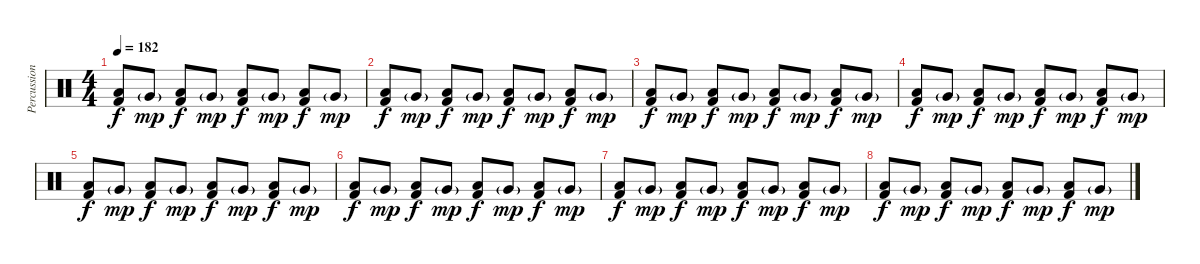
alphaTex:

\track ("Percussion" "Percussion") {instrument percussion}
\staff {score}
\articulation defaults
\ts (4 4)
\tempo 182
\clef neutral
\ks c
("Low Floor Tom (hit)" "Kick (hit) 2").8{dy f} "Very Low Tom (hit)"{g}.8{dy mp} ("Low Floor Tom (hit)" "Kick (hit) 2").8{dy f} "Very Low Tom (hit)"{g}.8{dy mp} ("Low Floor Tom (hit)" "Kick (hit) 2").8{dy f} "Very Low Tom (hit)"{g}.8{dy mp} ("Low Floor Tom (hit)" "Kick (hit) 2").8{dy f} "Very Low Tom (hit)"{g}.8{dy mp} |
("Low Floor Tom (hit)" "Kick (hit) 2").8{dy f} "Very Low Tom (hit)"{g}.8{dy mp} ("Low Floor Tom (hit)" "Kick (hit) 2").8{dy f} "Very Low Tom (hit)"{g}.8{dy mp} ("Low Floor Tom (hit)" "Kick (hit) 2").8{dy f} "Very Low Tom (hit)"{g}.8{dy mp} ("Low Floor Tom (hit)" "Kick (hit) 2").8{dy f} "Very Low Tom (hit)"{g}.8{dy mp} |
("Low Floor Tom (hit)" "Kick (hit) 2").8{dy f} "Very Low Tom (hit)"{g}.8{dy mp} ("Low Floor Tom (hit)" "Kick (hit) 2").8{dy f} "Very Low Tom (hit)"{g}.8{dy mp} ("Low Floor Tom (hit)" "Kick (hit) 2").8{dy f} "Very Low Tom (hit)"{g}.8{dy mp} ("Low Floor Tom (hit)" "Kick (hit) 2").8{dy f} "Very Low Tom (hit)"{g}.8{dy mp} |
("Low Floor Tom (hit)" "Kick (hit) 2").8{dy f} "Very Low Tom (hit)"{g}.8{dy mp} ("Low Floor Tom (hit)" "Kick (hit) 2").8{dy f} "Very Low Tom (hit)"{g}.8{dy mp} ("Low Floor Tom (hit)" "Kick (hit) 2").8{dy f} "Very Low Tom (hit)"{g}.8{dy mp} ("Low Floor Tom (hit)" "Kick (hit) 2").8{dy f} "Very Low Tom (hit)"{g}.8{dy mp} |
("Low Floor Tom (hit)" "Kick (hit) 2").8{dy f} "Very Low Tom (hit)"{g}.8{dy mp} ("Low Floor Tom (hit)" "Kick (hit) 2").8{dy f} "Very Low Tom (hit)"{g}.8{dy mp} ("Low Floor Tom (hit)" "Kick (hit) 2").8{dy f} "Very Low Tom (hit)"{g}.8{dy mp} ("Low Floor Tom (hit)" "Kick (hit) 2").8{dy f} "Very Low Tom (hit)"{g}.8{dy mp} |
("Low Floor Tom (hit)" "Kick (hit) 2").8{dy f} "Very Low Tom (hit)"{g}.8{dy mp} ("Low Floor Tom (hit)" "Kick (hit) 2").8{dy f} "Very Low Tom (hit)"{g}.8{dy mp} ("Low Floor Tom (hit)" "Kick (hit) 2").8{dy f} "Very Low Tom (hit)"{g}.8{dy mp} ("Low Floor Tom (hit)" "Kick (hit) 2").8{dy f} "Very Low Tom (hit)"{g}.8{dy mp} |
("Low Floor Tom (hit)" "Kick (hit) 2").8{dy f} "Very Low Tom (hit)"{g}.8{dy mp} ("Low Floor Tom (hit)" "Kick (hit) 2").8{dy f} "Very Low Tom (hit)"{g}.8{dy mp} ("Low Floor Tom (hit)" "Kick (hit) 2").8{dy f} "Very Low Tom (hit)"{g}.8{dy mp} ("Low Floor Tom (hit)" "Kick (hit) 2").8{dy f} "Very Low Tom (hit)"{g}.8{dy mp} |
("Low Floor Tom (hit)" "Kick (hit) 2").8{dy f} "Very Low Tom (hit)"{g}.8{dy mp} ("Low Floor Tom (hit)" "Kick (hit) 2").8{dy f} "Very Low Tom (hit)"{g}.8{dy mp} ("Low Floor Tom (hit)" "Kick (hit) 2").8{dy f} "Very Low Tom (hit)"{g}.8{dy mp} ("Low Floor Tom (hit)" "Kick (hit) 2").8{dy f} "Very Low Tom (hit)"{g}.8{dy mp}
